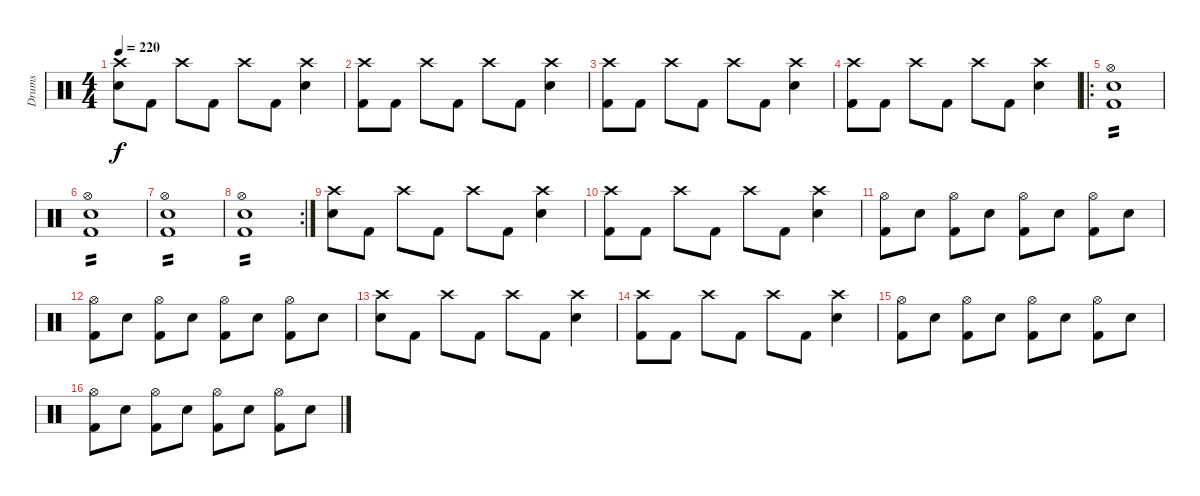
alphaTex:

\track ("Drums" "Drums") {instrument percussion}
\staff {score}
\articulation defaults
\ts (4 4)
\tempo 220
\clef neutral
\ks c
("Crash high (hit)" "Snare (hit) 2").8{dy f} "Kick (hit) 2".8 "Crash high (hit)".8 "Kick (hit) 2".8 "Crash high (hit)".8 "Kick (hit) 2".8 ("Crash high (hit)" "Snare (hit) 2").4 |
("Crash high (hit)" "Kick (hit) 2").8 "Kick (hit) 2".8 "Crash high (hit)".8 "Kick (hit) 2".8 "Crash high (hit)".8 "Kick (hit) 2".8 ("Crash high (hit)" "Snare (hit) 2").4 |
("Crash high (hit)" "Kick (hit) 2").8 "Kick (hit) 2".8 "Crash high (hit)".8 "Kick (hit) 2".8 "Crash high (hit)".8 "Kick (hit) 2".8 ("Crash high (hit)" "Snare (hit) 2").4 |
("Crash high (hit)" "Kick (hit) 2").8 "Kick (hit) 2".8 "Crash high (hit)".8 "Kick (hit) 2".8 "Crash high (hit)".8 "Kick (hit) 2".8 ("Crash high (hit)" "Snare (hit) 2").4 |
\ro
("Hi-Hat (open)" "Snare (hit) 2" "Kick (hit) 2").1{tp 2} |
("Hi-Hat (open)" "Snare (hit) 2" "Kick (hit) 2").1{tp 2} |
("Hi-Hat (open)" "Snare (hit) 2" "Kick (hit) 2").1{tp 2} |
\rc 2
("Hi-Hat (open)" "Snare (hit) 2" "Kick (hit) 2").1{tp 2} |
("Crash high (hit)" "Snare (hit) 2").8 "Kick (hit) 2".8 "Crash high (hit)".8 "Kick (hit) 2".8 "Crash high (hit)".8 "Kick (hit) 2".8 ("Crash high (hit)" "Snare (hit) 2").4 |
("Crash high (hit)" "Kick (hit) 2").8 "Kick (hit) 2".8 "Crash high (hit)".8 "Kick (hit) 2".8 "Crash high (hit)".8 "Kick (hit) 2".8 ("Crash high (hit)" "Snare (hit) 2").4 |
("Hi-Hat (open)" "Kick (hit) 2").8 "Snare (hit) 2".8 ("Hi-Hat (open)" "Kick (hit) 2").8 "Snare (hit) 2".8 ("Hi-Hat (open)" "Kick (hit) 2").8 "Snare (hit) 2".8 ("Hi-Hat (open)" "Kick (hit) 2").8 "Snare (hit) 2".8 |
("Hi-Hat (open)" "Kick (hit) 2").8 "Snare (hit) 2".8 ("Hi-Hat (open)" "Kick (hit) 2").8 "Snare (hit) 2".8 ("Hi-Hat (open)" "Kick (hit) 2").8 "Snare (hit) 2".8 ("Hi-Hat (open)" "Kick (hit) 2").8 "Snare (hit) 2".8 |
("Crash high (hit)" "Snare (hit) 2").8 "Kick (hit) 2".8 "Crash high (hit)".8 "Kick (hit) 2".8 "Crash high (hit)".8 "Kick (hit) 2".8 ("Crash high (hit)" "Snare (hit) 2").4 |
("Crash high (hit)" "Kick (hit) 2").8 "Kick (hit) 2".8 "Crash high (hit)".8 "Kick (hit) 2".8 "Crash high (hit)".8 "Kick (hit) 2".8 ("Crash high (hit)" "Snare (hit) 2").4 |
("Hi-Hat (open)" "Kick (hit) 2").8 "Snare (hit) 2".8 ("Hi-Hat (open)" "Kick (hit) 2").8 "Snare (hit) 2".8 ("Hi-Hat (open)" "Kick (hit) 2").8 "Snare (hit) 2".8 ("Hi-Hat (open)" "Kick (hit) 2").8 "Snare (hit) 2".8 |
("Hi-Hat (open)" "Kick (hit) 2").8 "Snare (hit) 2".8 ("Hi-Hat (open)" "Kick (hit) 2").8 "Snare (hit) 2".8 ("Hi-Hat (open)" "Kick (hit) 2").8 "Snare (hit) 2".8 ("Hi-Hat (open)" "Kick (hit) 2").8 "Snare (hit) 2".8
